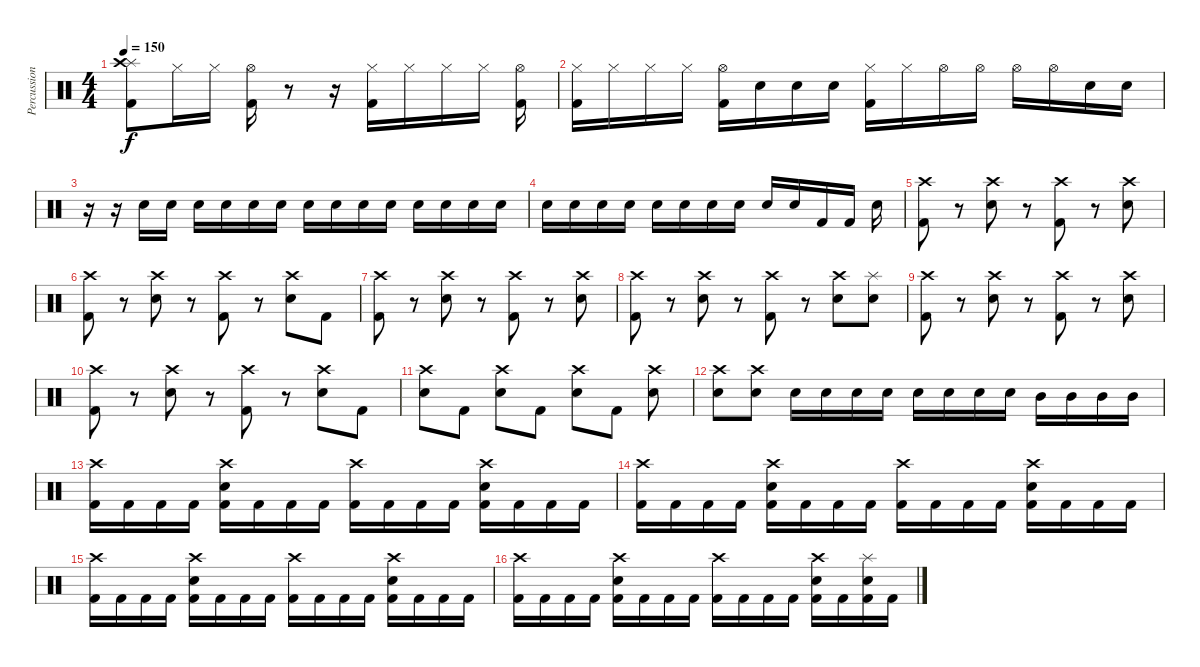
\track ("Percussion" "Percussion") {instrument percussion}
\staff {score}
\articulation defaults
\ts (4 4)
\tempo 150
\clef neutral
\ks c
("Splash (hit)" "Crash high (hit)" "Kick (hit) 2").8{dy f} "Hi-Hat (closed)".16 "Hi-Hat (closed)".16 ("Hi-Hat (open)" "Kick (hit) 2").16 r.8 r.16 ("Hi-Hat (closed)" "Kick (hit) 2").16 "Hi-Hat (closed)".16 "Hi-Hat (closed)".16 "Hi-Hat (closed)".16 ("Hi-Hat (open)" "Kick (hit) 2").16 |
("Hi-Hat (closed)" "Kick (hit) 2").16 "Hi-Hat (closed)".16 "Hi-Hat (closed)".16 "Hi-Hat (closed)".16 ("Hi-Hat (open)" "Kick (hit) 2").16 "Snare (hit)".16 "Snare (hit)".16 "Snare (hit)".16 ("Hi-Hat (closed)" "Kick (hit) 2").16 "Hi-Hat (closed)".16 "Hi-Hat (open)".16 "Hi-Hat (open)".16 "Hi-Hat (open)".16 "Hi-Hat (open)".16 "Snare (hit)".16 "Snare (hit)".16 |
r.16 r.16 "Snare (hit) 2".16 "Snare (hit) 2".16 "Snare (hit) 2".16 "Snare (hit) 2".16 "Snare (hit) 2".16 "Snare (hit) 2".16 "Snare (hit) 2".16 "Snare (hit) 2".16 "Snare (hit) 2".16 "Snare (hit) 2".16 "Snare (hit) 2".16 "Snare (hit) 2".16 "Snare (hit) 2".16 "Snare (hit) 2".16 |
"Snare (hit) 2".16 "Snare (hit) 2".16 "Snare (hit) 2".16 "Snare (hit) 2".16 "Snare (hit) 2".16 "Snare (hit) 2".16 "Snare (hit) 2".16 "Snare (hit) 2".16 "Snare (hit) 2".16 "Snare (hit) 2".16 "Kick (hit) 2".16 "Kick (hit) 2".16 "Snare (hit) 2".16 |
("Crash high (hit)" "Kick (hit) 2").8 r.8 ("Crash high (hit)" "Snare (hit) 2").8 r.8 ("Crash high (hit)" "Kick (hit) 2").8 r.8 ("Crash high (hit)" "Snare (hit) 2").8 |
("Crash high (hit)" "Kick (hit) 2").8 r.8 ("Crash high (hit)" "Snare (hit) 2").8 r.8 ("Crash high (hit)" "Kick (hit) 2").8 r.8 ("Crash high (hit)" "Snare (hit) 2").8 "Kick (hit) 2".8 |
("Crash high (hit)" "Kick (hit) 2").8 r.8 ("Crash high (hit)" "Snare (hit) 2").8 r.8 ("Crash high (hit)" "Kick (hit) 2").8 r.8 ("Crash high (hit)" "Snare (hit) 2").8 |
("Crash high (hit)" "Kick (hit) 2").8 r.8 ("Crash high (hit)" "Snare (hit) 2").8 r.8 ("Crash high (hit)" "Kick (hit) 2").8 r.8 ("Crash high (hit)" "Snare (hit) 2").8 ("Splash (hit)" "Snare (hit) 2").8 |
("Crash high (hit)" "Kick (hit) 2").8 r.8 ("Crash high (hit)" "Snare (hit) 2").8 r.8 ("Crash high (hit)" "Kick (hit) 2").8 r.8 ("Crash high (hit)" "Snare (hit) 2").8 |
("Crash high (hit)" "Kick (hit) 2").8 r.8 ("Crash high (hit)" "Snare (hit) 2").8 r.8 ("Crash high (hit)" "Kick (hit) 2").8 r.8 ("Crash high (hit)" "Snare (hit) 2").8 "Kick (hit) 2".8 |
("Crash high (hit)" "Snare (hit) 2").8 "Kick (hit) 2".8 ("Crash high (hit)" "Snare (hit) 2").8 "Kick (hit) 2".8 ("Crash high (hit)" "Snare (hit) 2").8 "Kick (hit) 2".8 ("Crash high (hit)" "Snare (hit) 2").8 |
("Crash high (hit)" "Snare (hit) 2").8 ("Crash high (hit)" "Snare (hit) 2").8 "Snare (hit) 2".16 "Snare (hit) 2".16 "Snare (hit) 2".16 "Snare (hit) 2".16 "Snare (hit) 2".16 "Snare (hit) 2".16 "Snare (hit) 2".16 "Snare (hit) 2".16 "Mid Tom (hit)".16 "Mid Tom (hit)".16 "Mid Tom (hit)".16 "Mid Tom (hit)".16 |
("Crash high (hit)" "Kick (hit) 2").16 "Kick (hit) 2".16 "Kick (hit) 2".16 "Kick (hit) 2".16 ("Crash high (hit)" "Snare (hit) 2" "Kick (hit) 2").16 "Kick (hit) 2".16 "Kick (hit) 2".16 "Kick (hit) 2".16 ("Crash high (hit)" "Kick (hit) 2").16 "Kick (hit) 2".16 "Kick (hit) 2".16 "Kick (hit) 2".16 ("Crash high (hit)" "Snare (hit) 2" "Kick (hit) 2").16 "Kick (hit) 2".16 "Kick (hit) 2".16 "Kick (hit) 2".16 |
("Crash high (hit)" "Kick (hit) 2").16 "Kick (hit) 2".16 "Kick (hit) 2".16 "Kick (hit) 2".16 ("Crash high (hit)" "Snare (hit) 2" "Kick (hit) 2").16 "Kick (hit) 2".16 "Kick (hit) 2".16 "Kick (hit) 2".16 ("Crash high (hit)" "Kick (hit) 2").16 "Kick (hit) 2".16 "Kick (hit) 2".16 "Kick (hit) 2".16 ("Crash high (hit)" "Snare (hit) 2" "Kick (hit) 2").16 "Kick (hit) 2".16 "Kick (hit) 2".16 "Kick (hit) 2".16 |
("Crash high (hit)" "Kick (hit) 2").16 "Kick (hit) 2".16 "Kick (hit) 2".16 "Kick (hit) 2".16 ("Crash high (hit)" "Snare (hit) 2" "Kick (hit) 2").16 "Kick (hit) 2".16 "Kick (hit) 2".16 "Kick (hit) 2".16 ("Crash high (hit)" "Kick (hit) 2").16 "Kick (hit) 2".16 "Kick (hit) 2".16 "Kick (hit) 2".16 ("Crash high (hit)" "Snare (hit) 2" "Kick (hit) 2").16 "Kick (hit) 2".16 "Kick (hit) 2".16 "Kick (hit) 2".16 |
("Crash high (hit)" "Kick (hit) 2").16 "Kick (hit) 2".16 "Kick (hit) 2".16 "Kick (hit) 2".16 ("Crash high (hit)" "Snare (hit) 2" "Kick (hit) 2").16 "Kick (hit) 2".16 "Kick (hit) 2".16 "Kick (hit) 2".16 ("Crash high (hit)" "Kick (hit) 2").16 "Kick (hit) 2".16 "Kick (hit) 2".16 "Kick (hit) 2".16 ("Crash high (hit)" "Snare (hit) 2" "Kick (hit) 2").16 "Kick (hit) 2".16 ("Splash (hit)" "Snare (hit) 2" "Kick (hit) 2").16 "Kick (hit) 2".16
